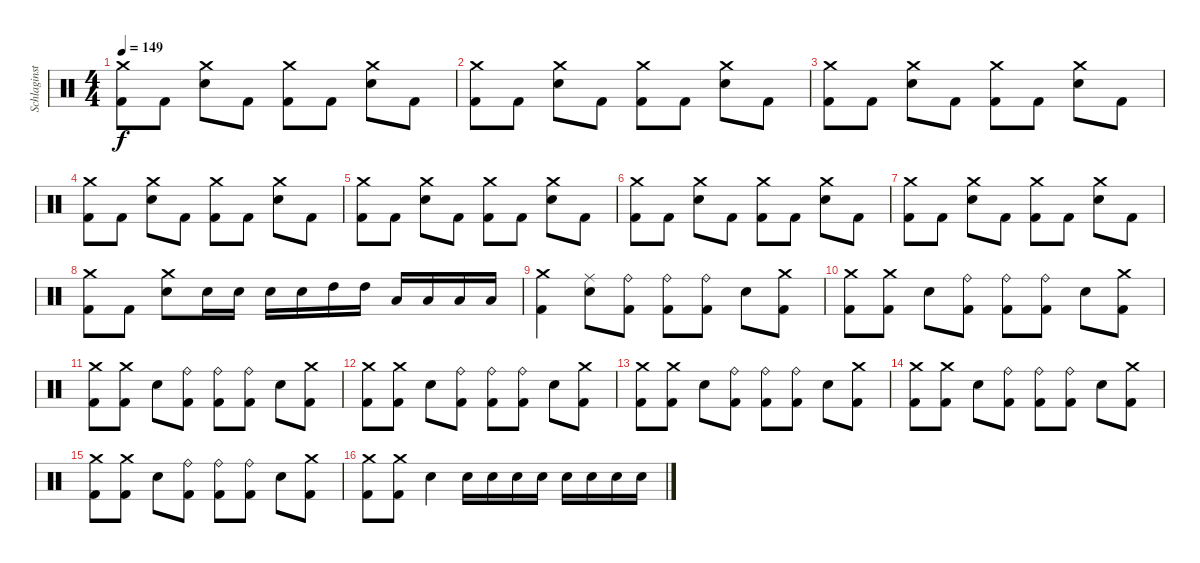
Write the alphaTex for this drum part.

\track ("Schlaginstrumente - Auswahl" "Schlaginst") {instrument percussion}
\staff {score}
\articulation defaults
\ts (4 4)
\tempo 149
\clef neutral
\ks c
("Crash medium (hit)" "Kick (hit) 2").8{dy f} "Kick (hit) 2".8 ("Crash medium (hit)" "Electric Snare (hit)").8 "Kick (hit) 2".8 ("Crash medium (hit)" "Kick (hit) 2").8 "Kick (hit) 2".8 ("Crash medium (hit)" "Electric Snare (hit)").8 "Kick (hit) 2".8 |
("Crash medium (hit)" "Kick (hit) 2").8 "Kick (hit) 2".8 ("Crash medium (hit)" "Electric Snare (hit)").8 "Kick (hit) 2".8 ("Crash medium (hit)" "Kick (hit) 2").8 "Kick (hit) 2".8 ("Crash medium (hit)" "Electric Snare (hit)").8 "Kick (hit) 2".8 |
("Crash medium (hit)" "Kick (hit) 2").8 "Kick (hit) 2".8 ("Crash medium (hit)" "Electric Snare (hit)").8 "Kick (hit) 2".8 ("Crash medium (hit)" "Kick (hit) 2").8 "Kick (hit) 2".8 ("Crash medium (hit)" "Electric Snare (hit)").8 "Kick (hit) 2".8 |
("Crash medium (hit)" "Kick (hit) 2").8 "Kick (hit) 2".8 ("Crash medium (hit)" "Electric Snare (hit)").8 "Kick (hit) 2".8 ("Crash medium (hit)" "Kick (hit) 2").8 "Kick (hit) 2".8 ("Crash medium (hit)" "Electric Snare (hit)").8 "Kick (hit) 2".8 |
("Crash medium (hit)" "Kick (hit) 2").8 "Kick (hit) 2".8 ("Crash medium (hit)" "Electric Snare (hit)").8 "Kick (hit) 2".8 ("Crash medium (hit)" "Kick (hit) 2").8 "Kick (hit) 2".8 ("Crash medium (hit)" "Electric Snare (hit)").8 "Kick (hit) 2".8 |
("Crash medium (hit)" "Kick (hit) 2").8 "Kick (hit) 2".8 ("Crash medium (hit)" "Electric Snare (hit)").8 "Kick (hit) 2".8 ("Crash medium (hit)" "Kick (hit) 2").8 "Kick (hit) 2".8 ("Crash medium (hit)" "Electric Snare (hit)").8 "Kick (hit) 2".8 |
("Crash medium (hit)" "Kick (hit) 2").8 "Kick (hit) 2".8 ("Crash medium (hit)" "Electric Snare (hit)").8 "Kick (hit) 2".8 ("Crash medium (hit)" "Kick (hit) 2").8 "Kick (hit) 2".8 ("Crash medium (hit)" "Electric Snare (hit)").8 "Kick (hit) 2".8 |
("Crash medium (hit)" "Kick (hit) 2").8 "Kick (hit) 2".8 ("Crash medium (hit)" "Electric Snare (hit)").8 "Electric Snare (hit)".16 "Electric Snare (hit)".16 "Electric Snare (hit)".16 "Electric Snare (hit)".16 "High Tom (hit)".16 "High Tom (hit)".16 "Low Tom (hit)".16 "Low Tom (hit)".16 "Low Floor Tom (hit)".16 "Low Floor Tom (hit)".16 |
("Crash medium (hit)" "Kick (hit) 2").4 ("Ride (middle)" "Electric Snare (hit)").8 ("Ride (bell)" "Kick (hit) 2").8 ("Ride (bell)" "Kick (hit) 2").8 ("Ride (bell)" "Kick (hit) 2").8 "Electric Snare (hit)".8 ("Crash medium (hit)" "Kick (hit) 2").8 |
("Crash medium (hit)" "Kick (hit) 2").8 ("Crash medium (hit)" "Kick (hit) 2").8 "Electric Snare (hit)".8 ("Ride (bell)" "Kick (hit) 2").8 ("Ride (bell)" "Kick (hit) 2").8 ("Ride (bell)" "Kick (hit) 2").8 "Electric Snare (hit)".8 ("Crash medium (hit)" "Kick (hit) 2").8 |
("Crash medium (hit)" "Kick (hit) 2").8 ("Crash medium (hit)" "Kick (hit) 2").8 "Electric Snare (hit)".8 ("Ride (bell)" "Kick (hit) 2").8 ("Ride (bell)" "Kick (hit) 2").8 ("Ride (bell)" "Kick (hit) 2").8 "Electric Snare (hit)".8 ("Crash medium (hit)" "Kick (hit) 2").8 |
("Crash medium (hit)" "Kick (hit) 2").8 ("Crash medium (hit)" "Kick (hit) 2").8 "Electric Snare (hit)".8 ("Ride (bell)" "Kick (hit) 2").8 ("Ride (bell)" "Kick (hit) 2").8 ("Ride (bell)" "Kick (hit) 2").8 "Electric Snare (hit)".8 ("Crash medium (hit)" "Kick (hit) 2").8 |
("Crash medium (hit)" "Kick (hit) 2").8 ("Crash medium (hit)" "Kick (hit) 2").8 "Electric Snare (hit)".8 ("Ride (bell)" "Kick (hit) 2").8 ("Ride (bell)" "Kick (hit) 2").8 ("Ride (bell)" "Kick (hit) 2").8 "Electric Snare (hit)".8 ("Crash medium (hit)" "Kick (hit) 2").8 |
("Crash medium (hit)" "Kick (hit) 2").8 ("Crash medium (hit)" "Kick (hit) 2").8 "Electric Snare (hit)".8 ("Ride (bell)" "Kick (hit) 2").8 ("Ride (bell)" "Kick (hit) 2").8 ("Ride (bell)" "Kick (hit) 2").8 "Electric Snare (hit)".8 ("Crash medium (hit)" "Kick (hit) 2").8 |
("Crash medium (hit)" "Kick (hit) 2").8 ("Crash medium (hit)" "Kick (hit) 2").8 "Electric Snare (hit)".8 ("Ride (bell)" "Kick (hit) 2").8 ("Ride (bell)" "Kick (hit) 2").8 ("Ride (bell)" "Kick (hit) 2").8 "Electric Snare (hit)".8 ("Crash medium (hit)" "Kick (hit) 2").8 |
("Crash medium (hit)" "Kick (hit) 2").8 ("Crash medium (hit)" "Kick (hit) 2").8 "Electric Snare (hit)".4 "Electric Snare (hit)".16 "Electric Snare (hit)".16 "Electric Snare (hit)".16 "Electric Snare (hit)".16 "Electric Snare (hit)".16 "Electric Snare (hit)".16 "Electric Snare (hit)".16 "Electric Snare (hit)".16
